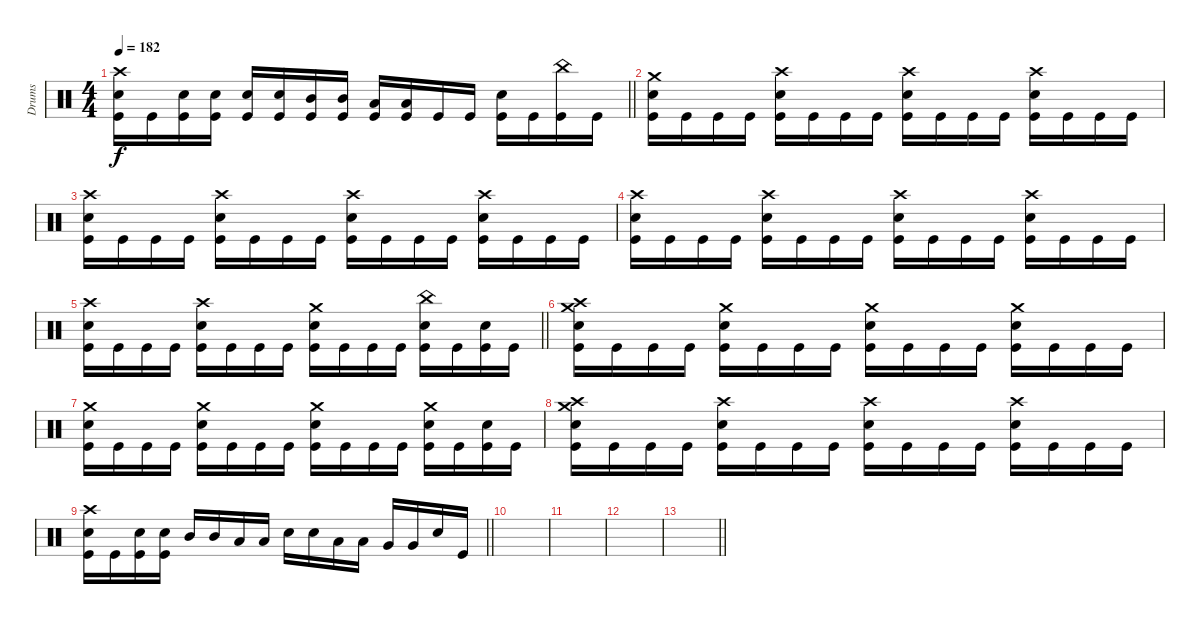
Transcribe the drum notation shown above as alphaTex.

\track ("Drums" "Drums") {instrument percussion}
\staff
\articulation defaults
\ts (4 4)
\tempo 182
\clef neutral
\barLineRight lightlight
\ks c
("Crash high (hit)" "Electric Snare (hit)" "Kick (hit)").16{dy f} "Kick (hit)".16 ("Electric Snare (hit)" "Kick (hit)").16 ("Electric Snare (hit)" "Kick (hit)").16 ("Electric Snare (hit)" "Kick (hit)").16 ("Electric Snare (hit)" "Kick (hit)").16 ("Mid Tom (hit)" "Kick (hit)").16 ("Mid Tom (hit)" "Kick (hit)").16 ("Low Tom (hit)" "Kick (hit)").16 ("Low Tom (hit)" "Kick (hit)").16 "Kick (hit)".16 "Kick (hit)".16 ("Electric Snare (hit)" "Kick (hit)").16 "Kick (hit)".16 ("China (hit)" "Kick (hit)").16 "Kick (hit)".16 |
("Crash medium (hit)" "Electric Snare (hit)" "Kick (hit)").16 "Kick (hit)".16 "Kick (hit)".16 "Kick (hit)".16 ("Crash high (hit)" "Electric Snare (hit)" "Kick (hit)").16 "Kick (hit)".16 "Kick (hit)".16 "Kick (hit)".16 ("Crash high (hit)" "Electric Snare (hit)" "Kick (hit)").16 "Kick (hit)".16 "Kick (hit)".16 "Kick (hit)".16 ("Crash high (hit)" "Electric Snare (hit)" "Kick (hit)").16 "Kick (hit)".16 "Kick (hit)".16 "Kick (hit)".16 |
("Crash high (hit)" "Electric Snare (hit)" "Kick (hit)").16 "Kick (hit)".16 "Kick (hit)".16 "Kick (hit)".16 ("Crash high (hit)" "Electric Snare (hit)" "Kick (hit)").16 "Kick (hit)".16 "Kick (hit)".16 "Kick (hit)".16 ("Crash high (hit)" "Electric Snare (hit)" "Kick (hit)").16 "Kick (hit)".16 "Kick (hit)".16 "Kick (hit)".16 ("Crash high (hit)" "Electric Snare (hit)" "Kick (hit)").16 "Kick (hit)".16 "Kick (hit)".16 "Kick (hit)".16 |
("Crash high (hit)" "Electric Snare (hit)" "Kick (hit)").16 "Kick (hit)".16 "Kick (hit)".16 "Kick (hit)".16 ("Crash high (hit)" "Electric Snare (hit)" "Kick (hit)").16 "Kick (hit)".16 "Kick (hit)".16 "Kick (hit)".16 ("Crash high (hit)" "Electric Snare (hit)" "Kick (hit)").16 "Kick (hit)".16 "Kick (hit)".16 "Kick (hit)".16 ("Crash high (hit)" "Electric Snare (hit)" "Kick (hit)").16 "Kick (hit)".16 "Kick (hit)".16 "Kick (hit)".16 |
\barLineRight lightlight
("Crash high (hit)" "Electric Snare (hit)" "Kick (hit)").16 "Kick (hit)".16 "Kick (hit)".16 "Kick (hit)".16 ("Crash high (hit)" "Electric Snare (hit)" "Kick (hit)").16 "Kick (hit)".16 "Kick (hit)".16 "Kick (hit)".16 ("Crash medium (hit)" "Electric Snare (hit)" "Kick (hit)").16 "Kick (hit)".16 "Kick (hit)".16 "Kick (hit)".16 ("China (hit)" "Electric Snare (hit)" "Kick (hit)").16 "Kick (hit)".16 ("Electric Snare (hit)" "Kick (hit)").16 "Kick (hit)".16 |
("Crash high (hit)" "Crash medium (hit)" "Electric Snare (hit)" "Kick (hit)").16 "Kick (hit)".16 "Kick (hit)".16 "Kick (hit)".16 ("Crash medium (hit)" "Electric Snare (hit)" "Kick (hit)").16 "Kick (hit)".16 "Kick (hit)".16 "Kick (hit)".16 ("Crash medium (hit)" "Electric Snare (hit)" "Kick (hit)").16 "Kick (hit)".16 "Kick (hit)".16 "Kick (hit)".16 ("Crash medium (hit)" "Electric Snare (hit)" "Kick (hit)").16 "Kick (hit)".16 "Kick (hit)".16 "Kick (hit)".16 |
("Crash medium (hit)" "Electric Snare (hit)" "Kick (hit)").16 "Kick (hit)".16 "Kick (hit)".16 "Kick (hit)".16 ("Crash medium (hit)" "Electric Snare (hit)" "Kick (hit)").16 "Kick (hit)".16 "Kick (hit)".16 "Kick (hit)".16 ("Crash medium (hit)" "Electric Snare (hit)" "Kick (hit)").16 "Kick (hit)".16 "Kick (hit)".16 "Kick (hit)".16 ("Crash medium (hit)" "Electric Snare (hit)" "Kick (hit)").16 "Kick (hit)".16 ("Electric Snare (hit)" "Kick (hit)").16 "Kick (hit)".16 |
("Crash high (hit)" "Crash medium (hit)" "Electric Snare (hit)" "Kick (hit)").16 "Kick (hit)".16 "Kick (hit)".16 "Kick (hit)".16 ("Crash high (hit)" "Electric Snare (hit)" "Kick (hit)").16 "Kick (hit)".16 "Kick (hit)".16 "Kick (hit)".16 ("Crash high (hit)" "Electric Snare (hit)" "Kick (hit)").16 "Kick (hit)".16 "Kick (hit)".16 "Kick (hit)".16 ("Crash high (hit)" "Electric Snare (hit)" "Kick (hit)").16 "Kick (hit)".16 "Kick (hit)".16 "Kick (hit)".16 |
\barLineRight lightlight
("Crash high (hit)" "Electric Snare (hit)" "Kick (hit)").16 "Kick (hit)".16 ("Electric Snare (hit)" "Kick (hit)").16 ("Electric Snare (hit)" "Kick (hit)").16 "Mid Tom (hit)".16 "Mid Tom (hit)".16 "Low Tom (hit)".16 "Low Tom (hit)".16 "Electric Snare (hit)".16 "Electric Snare (hit)".16 "Low Tom (hit)".16 "Low Tom (hit)".16 "Very Low Tom (hit)".16 "Very Low Tom (hit)".16 "Electric Snare (hit)".16 "Kick (hit)".16 |
\section ("" "")
|
|
|
\barLineRight lightlight
